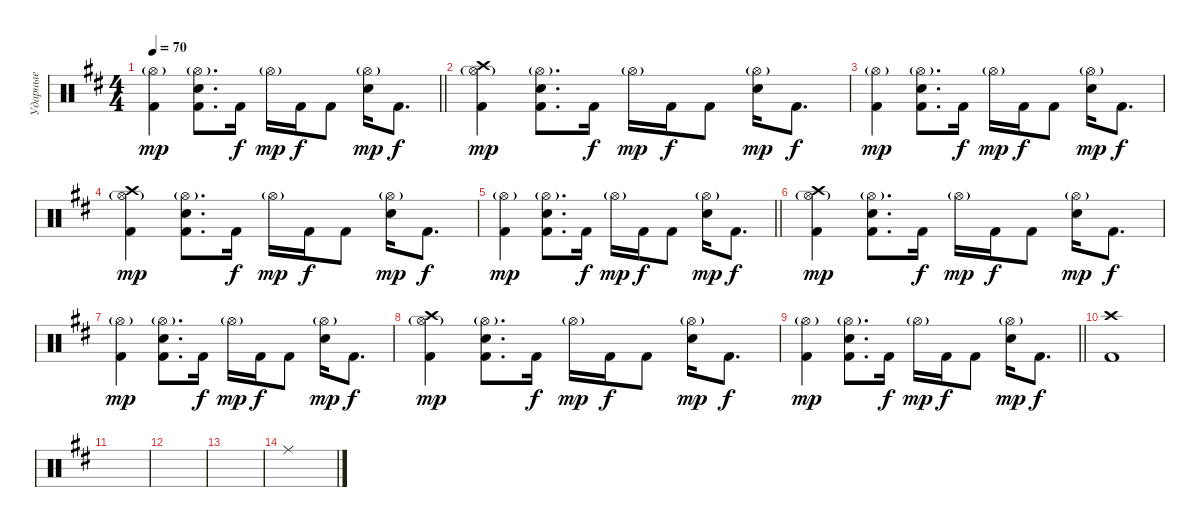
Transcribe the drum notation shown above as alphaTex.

\track ("Ударные" "Ударные") {instrument percussion}
\staff {score}
\articulation defaults
\ts (4 4)
\tempo 70
\clef neutral
\barLineRight lightlight
\ks bminor
("Hi-Hat (open)"{g} "Kick (hit) 2").4{dy mp} ("Hi-Hat (open)"{g} "Electric Snare (hit)" "Kick (hit) 2").8{d} "Kick (hit) 2".16{dy f} "Hi-Hat (open)"{g}.16{dy mp} "Kick (hit) 2".16{dy f} "Kick (hit) 2".8 ("Hi-Hat (open)"{g} "Electric Snare (hit)").16{dy mp} "Kick (hit) 2".8{d dy f} |
("Crash high (hit)" "Hi-Hat (open)"{g} "Kick (hit) 2").4{dy mp} ("Hi-Hat (open)"{g} "Electric Snare (hit)" "Kick (hit) 2").8{d} "Kick (hit) 2".16{dy f} "Hi-Hat (open)"{g}.16{dy mp} "Kick (hit) 2".16{dy f} "Kick (hit) 2".8 ("Hi-Hat (open)"{g} "Electric Snare (hit)").16{dy mp} "Kick (hit) 2".8{d dy f} |
("Hi-Hat (open)"{g} "Kick (hit) 2").4{dy mp} ("Hi-Hat (open)"{g} "Electric Snare (hit)" "Kick (hit) 2").8{d} "Kick (hit) 2".16{dy f} "Hi-Hat (open)"{g}.16{dy mp} "Kick (hit) 2".16{dy f} "Kick (hit) 2".8 ("Hi-Hat (open)"{g} "Electric Snare (hit)").16{dy mp} "Kick (hit) 2".8{d dy f} |
("Crash high (hit)" "Hi-Hat (open)"{g} "Kick (hit) 2").4{dy mp} ("Hi-Hat (open)"{g} "Electric Snare (hit)" "Kick (hit) 2").8{d} "Kick (hit) 2".16{dy f} "Hi-Hat (open)"{g}.16{dy mp} "Kick (hit) 2".16{dy f} "Kick (hit) 2".8 ("Hi-Hat (open)"{g} "Electric Snare (hit)").16{dy mp} "Kick (hit) 2".8{d dy f} |
\barLineRight lightlight
("Hi-Hat (open)"{g} "Kick (hit) 2").4{dy mp} ("Hi-Hat (open)"{g} "Electric Snare (hit)" "Kick (hit) 2").8{d} "Kick (hit) 2".16{dy f} "Hi-Hat (open)"{g}.16{dy mp} "Kick (hit) 2".16{dy f} "Kick (hit) 2".8 ("Hi-Hat (open)"{g} "Electric Snare (hit)").16{dy mp} "Kick (hit) 2".8{d dy f} |
("Crash high (hit)" "Hi-Hat (open)"{g} "Kick (hit) 2").4{dy mp} ("Hi-Hat (open)"{g} "Electric Snare (hit)" "Kick (hit) 2").8{d} "Kick (hit) 2".16{dy f} "Hi-Hat (open)"{g}.16{dy mp} "Kick (hit) 2".16{dy f} "Kick (hit) 2".8 ("Hi-Hat (open)"{g} "Electric Snare (hit)").16{dy mp} "Kick (hit) 2".8{d dy f} |
("Hi-Hat (open)"{g} "Kick (hit) 2").4{dy mp} ("Hi-Hat (open)"{g} "Electric Snare (hit)" "Kick (hit) 2").8{d} "Kick (hit) 2".16{dy f} "Hi-Hat (open)"{g}.16{dy mp} "Kick (hit) 2".16{dy f} "Kick (hit) 2".8 ("Hi-Hat (open)"{g} "Electric Snare (hit)").16{dy mp} "Kick (hit) 2".8{d dy f} |
("Crash high (hit)" "Hi-Hat (open)"{g} "Kick (hit) 2").4{dy mp} ("Hi-Hat (open)"{g} "Electric Snare (hit)" "Kick (hit) 2").8{d} "Kick (hit) 2".16{dy f} "Hi-Hat (open)"{g}.16{dy mp} "Kick (hit) 2".16{dy f} "Kick (hit) 2".8 ("Hi-Hat (open)"{g} "Electric Snare (hit)").16{dy mp} "Kick (hit) 2".8{d dy f} |
\barLineRight lightlight
("Hi-Hat (open)"{g} "Kick (hit) 2").4{dy mp} ("Hi-Hat (open)"{g} "Electric Snare (hit)" "Kick (hit) 2").8{d} "Kick (hit) 2".16{dy f} "Hi-Hat (open)"{g}.16{dy mp} "Kick (hit) 2".16{dy f} "Kick (hit) 2".8 ("Hi-Hat (open)"{g} "Electric Snare (hit)").16{dy mp} "Kick (hit) 2".8{d dy f} |
("Crash high (hit)" "Kick (hit) 2").1 |
|
|
|
"Ride (middle)".1
